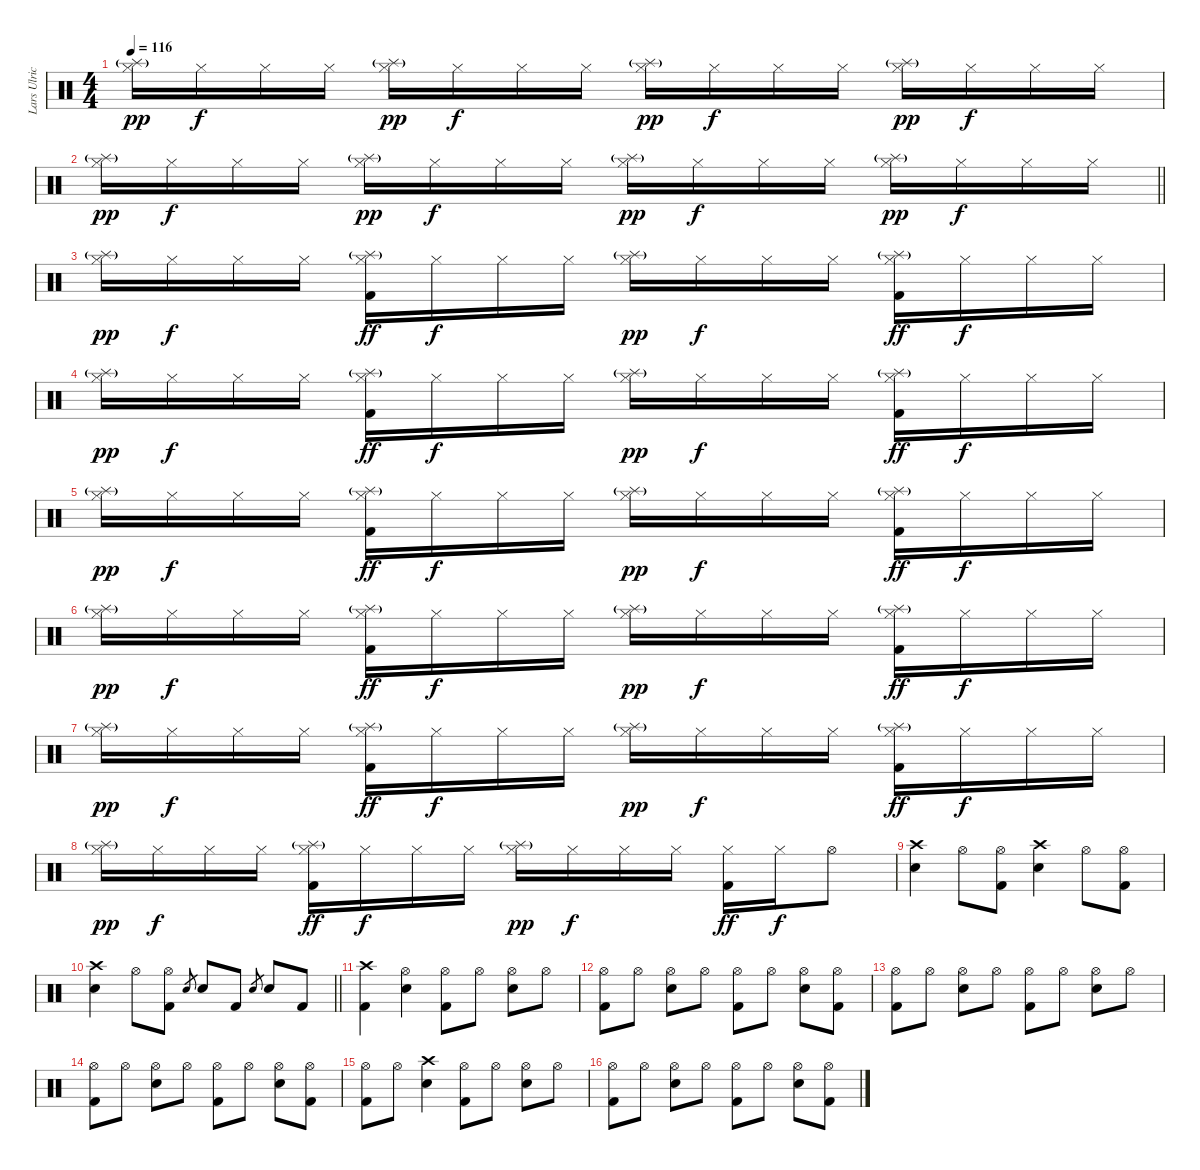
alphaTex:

\track ("Lars Ulrich - drums" "Lars Ulric") {instrument percussion}
\staff {score}
\articulation defaults
\ts (4 4)
\tempo 116
\clef neutral
\ks c
("Splash (hit)"{g} "Hi-Hat (closed)").16{dy pp} "Hi-Hat (closed)".16{dy f} "Hi-Hat (closed)".16 "Hi-Hat (closed)".16 ("Splash (hit)"{g} "Hi-Hat (closed)").16{dy pp} "Hi-Hat (closed)".16{dy f} "Hi-Hat (closed)".16 "Hi-Hat (closed)".16 ("Splash (hit)"{g} "Hi-Hat (closed)").16{dy pp} "Hi-Hat (closed)".16{dy f} "Hi-Hat (closed)".16 "Hi-Hat (closed)".16 ("Splash (hit)"{g} "Hi-Hat (closed)").16{dy pp} "Hi-Hat (closed)".16{dy f} "Hi-Hat (closed)".16 "Hi-Hat (closed)".16 |
\barLineRight lightlight
("Splash (hit)"{g} "Hi-Hat (closed)").16{dy pp} "Hi-Hat (closed)".16{dy f} "Hi-Hat (closed)".16 "Hi-Hat (closed)".16 ("Splash (hit)"{g} "Hi-Hat (closed)").16{dy pp} "Hi-Hat (closed)".16{dy f} "Hi-Hat (closed)".16 "Hi-Hat (closed)".16 ("Splash (hit)"{g} "Hi-Hat (closed)").16{dy pp} "Hi-Hat (closed)".16{dy f} "Hi-Hat (closed)".16 "Hi-Hat (closed)".16 ("Splash (hit)"{g} "Hi-Hat (closed)").16{dy pp} "Hi-Hat (closed)".16{dy f} "Hi-Hat (closed)".16 "Hi-Hat (closed)".16 |
\section ("" "")
("Splash (hit)"{g} "Hi-Hat (closed)").16{dy pp} "Hi-Hat (closed)".16{dy f} "Hi-Hat (closed)".16 "Hi-Hat (closed)".16 ("Splash (hit)"{g} "Hi-Hat (closed)" "Kick (hit) 2").16{dy ff} "Hi-Hat (closed)".16{dy f} "Hi-Hat (closed)".16 "Hi-Hat (closed)".16 ("Splash (hit)"{g} "Hi-Hat (closed)").16{dy pp} "Hi-Hat (closed)".16{dy f} "Hi-Hat (closed)".16 "Hi-Hat (closed)".16 ("Splash (hit)"{g} "Hi-Hat (closed)" "Kick (hit) 2").16{dy ff} "Hi-Hat (closed)".16{dy f} "Hi-Hat (closed)".16 "Hi-Hat (closed)".16 |
("Splash (hit)"{g} "Hi-Hat (closed)").16{dy pp} "Hi-Hat (closed)".16{dy f} "Hi-Hat (closed)".16 "Hi-Hat (closed)".16 ("Splash (hit)"{g} "Hi-Hat (closed)" "Kick (hit) 2").16{dy ff} "Hi-Hat (closed)".16{dy f} "Hi-Hat (closed)".16 "Hi-Hat (closed)".16 ("Splash (hit)"{g} "Hi-Hat (closed)").16{dy pp} "Hi-Hat (closed)".16{dy f} "Hi-Hat (closed)".16 "Hi-Hat (closed)".16 ("Splash (hit)"{g} "Hi-Hat (closed)" "Kick (hit) 2").16{dy ff} "Hi-Hat (closed)".16{dy f} "Hi-Hat (closed)".16 "Hi-Hat (closed)".16 |
("Splash (hit)"{g} "Hi-Hat (closed)").16{dy pp} "Hi-Hat (closed)".16{dy f} "Hi-Hat (closed)".16 "Hi-Hat (closed)".16 ("Splash (hit)"{g} "Hi-Hat (closed)" "Kick (hit) 2").16{dy ff} "Hi-Hat (closed)".16{dy f} "Hi-Hat (closed)".16 "Hi-Hat (closed)".16 ("Splash (hit)"{g} "Hi-Hat (closed)").16{dy pp} "Hi-Hat (closed)".16{dy f} "Hi-Hat (closed)".16 "Hi-Hat (closed)".16 ("Splash (hit)"{g} "Hi-Hat (closed)" "Kick (hit) 2").16{dy ff} "Hi-Hat (closed)".16{dy f} "Hi-Hat (closed)".16 "Hi-Hat (closed)".16 |
("Splash (hit)"{g} "Hi-Hat (closed)").16{dy pp} "Hi-Hat (closed)".16{dy f} "Hi-Hat (closed)".16 "Hi-Hat (closed)".16 ("Splash (hit)"{g} "Hi-Hat (closed)" "Kick (hit) 2").16{dy ff} "Hi-Hat (closed)".16{dy f} "Hi-Hat (closed)".16 "Hi-Hat (closed)".16 ("Splash (hit)"{g} "Hi-Hat (closed)").16{dy pp} "Hi-Hat (closed)".16{dy f} "Hi-Hat (closed)".16 "Hi-Hat (closed)".16 ("Splash (hit)"{g} "Hi-Hat (closed)" "Kick (hit) 2").16{dy ff} "Hi-Hat (closed)".16{dy f} "Hi-Hat (closed)".16 "Hi-Hat (closed)".16 |
("Splash (hit)"{g} "Hi-Hat (closed)").16{dy pp} "Hi-Hat (closed)".16{dy f} "Hi-Hat (closed)".16 "Hi-Hat (closed)".16 ("Splash (hit)"{g} "Hi-Hat (closed)" "Kick (hit) 2").16{dy ff} "Hi-Hat (closed)".16{dy f} "Hi-Hat (closed)".16 "Hi-Hat (closed)".16 ("Splash (hit)"{g} "Hi-Hat (closed)").16{dy pp} "Hi-Hat (closed)".16{dy f} "Hi-Hat (closed)".16 "Hi-Hat (closed)".16 ("Splash (hit)"{g} "Hi-Hat (closed)" "Kick (hit) 2").16{dy ff} "Hi-Hat (closed)".16{dy f} "Hi-Hat (closed)".16 "Hi-Hat (closed)".16 |
("Splash (hit)"{g} "Hi-Hat (closed)").16{dy pp} "Hi-Hat (closed)".16{dy f} "Hi-Hat (closed)".16 "Hi-Hat (closed)".16 ("Splash (hit)"{g} "Hi-Hat (closed)" "Kick (hit) 2").16{dy ff} "Hi-Hat (closed)".16{dy f} "Hi-Hat (closed)".16 "Hi-Hat (closed)".16 ("Splash (hit)"{g} "Hi-Hat (closed)").16{dy pp} "Hi-Hat (closed)".16{dy f} "Hi-Hat (closed)".16 "Hi-Hat (closed)".16 ("Hi-Hat (closed)" "Kick (hit) 2").16{dy ff} "Hi-Hat (closed)".16{dy f} "Hi-Hat (open)".8 |
("Crash high (hit)" "Snare (hit) 2").4 "Hi-Hat (open)".8 ("Hi-Hat (open)" "Kick (hit) 2").8 ("Crash high (hit)" "Snare (hit) 2").4 "Hi-Hat (open)".8 ("Hi-Hat (open)" "Kick (hit) 2").8 |
\barLineRight lightlight
("Crash high (hit)" "Snare (hit) 2").4 "Hi-Hat (open)".8 ("Hi-Hat (open)" "Kick (hit) 2").8 "Snare (hit) 2".8{gr} "Snare (hit) 2".8 "Kick (hit) 2".8 "Snare (hit) 2".8{gr} "Snare (hit) 2".8 "Kick (hit) 2".8 |
\section ("" "")
("Crash high (hit)" "Kick (hit) 2").4 ("Hi-Hat (open)" "Snare (hit) 2").4 ("Hi-Hat (open)" "Kick (hit) 2").8 "Hi-Hat (open)".8 ("Hi-Hat (open)" "Snare (hit) 2").8 "Hi-Hat (open)".8 |
("Hi-Hat (open)" "Kick (hit) 2").8 "Hi-Hat (open)".8 ("Hi-Hat (open)" "Snare (hit) 2").8 "Hi-Hat (open)".8 ("Hi-Hat (open)" "Kick (hit) 2").8 "Hi-Hat (open)".8 ("Hi-Hat (open)" "Snare (hit) 2").8 ("Hi-Hat (open)" "Kick (hit) 2").8 |
("Hi-Hat (open)" "Kick (hit) 2").8 "Hi-Hat (open)".8 ("Hi-Hat (open)" "Snare (hit) 2").8 "Hi-Hat (open)".8 ("Hi-Hat (open)" "Kick (hit) 2").8 "Hi-Hat (open)".8 ("Hi-Hat (open)" "Snare (hit) 2").8 "Hi-Hat (open)".8 |
("Hi-Hat (open)" "Kick (hit) 2").8 "Hi-Hat (open)".8 ("Hi-Hat (open)" "Snare (hit) 2").8 "Hi-Hat (open)".8 ("Hi-Hat (open)" "Kick (hit) 2").8 "Hi-Hat (open)".8 ("Hi-Hat (open)" "Snare (hit) 2").8 ("Hi-Hat (open)" "Kick (hit) 2").8 |
("Hi-Hat (open)" "Kick (hit) 2").8 "Hi-Hat (open)".8 ("Crash high (hit)" "Snare (hit) 2").4 ("Hi-Hat (open)" "Kick (hit) 2").8 "Hi-Hat (open)".8 ("Hi-Hat (open)" "Snare (hit) 2").8 "Hi-Hat (open)".8 |
("Hi-Hat (open)" "Kick (hit) 2").8 "Hi-Hat (open)".8 ("Hi-Hat (open)" "Snare (hit) 2").8 "Hi-Hat (open)".8 ("Hi-Hat (open)" "Kick (hit) 2").8 "Hi-Hat (open)".8 ("Hi-Hat (open)" "Snare (hit) 2").8 ("Hi-Hat (open)" "Kick (hit) 2").8
